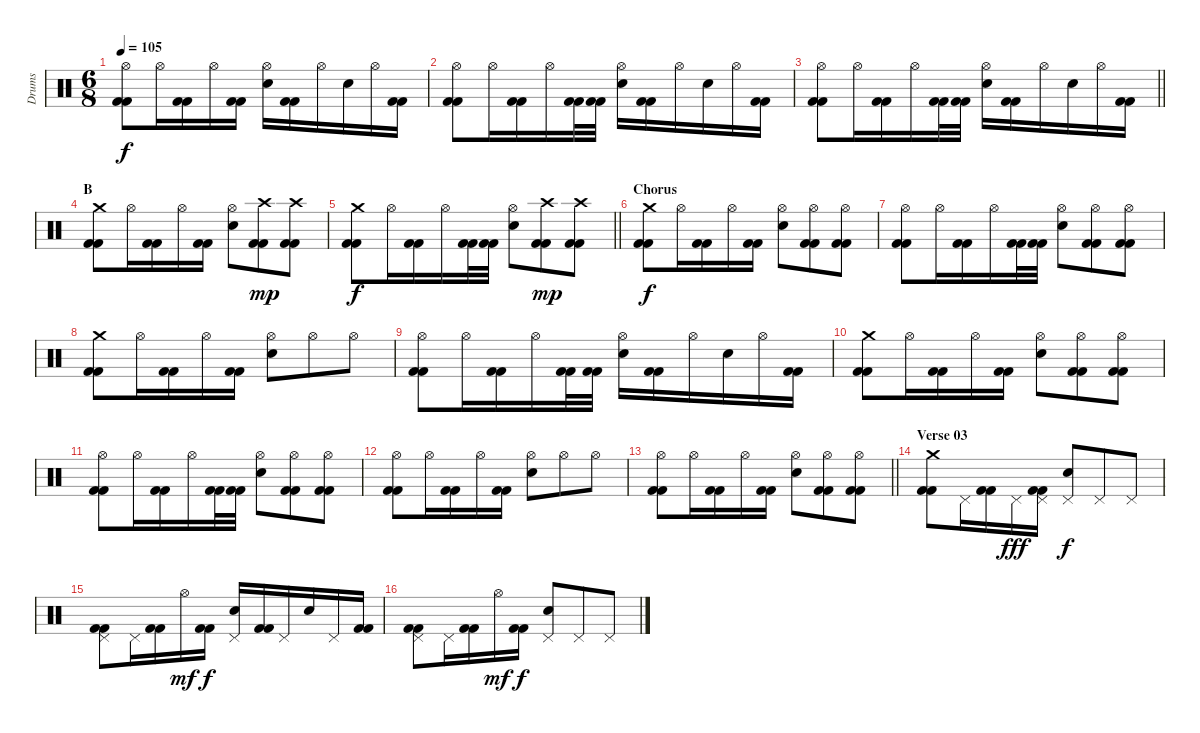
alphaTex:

\track ("Drums" "Drums") {instrument percussion}
\staff {score}
\articulation defaults
\ts (6 8)
\tempo 105
\clef neutral
\ks c
("Hi-Hat (open)" "Kick (hit) 2" "Kick (hit) 2").8{dy f} "Hi-Hat (open)".16 ("Kick (hit) 2" "Kick (hit) 2").16 "Hi-Hat (open)".16 ("Kick (hit) 2" "Kick (hit) 2").16 ("Hi-Hat (open)" "Electric Snare (hit)").16 ("Kick (hit) 2" "Kick (hit) 2").16 "Hi-Hat (open)".16 "Electric Snare (hit)".16 "Hi-Hat (open)".16 ("Kick (hit) 2" "Kick (hit) 2").16 |
("Hi-Hat (open)" "Kick (hit) 2" "Kick (hit) 2").8 "Hi-Hat (open)".16 ("Kick (hit) 2" "Kick (hit) 2").16 "Hi-Hat (open)".16 ("Kick (hit) 2" "Kick (hit) 2").32 ("Kick (hit) 2" "Kick (hit) 2").32 ("Hi-Hat (open)" "Electric Snare (hit)").16 ("Kick (hit) 2" "Kick (hit) 2").16 "Hi-Hat (open)".16 "Electric Snare (hit)".16 "Hi-Hat (open)".16 ("Kick (hit) 2" "Kick (hit) 2").16 |
\barLineRight lightlight
("Hi-Hat (open)" "Kick (hit) 2" "Kick (hit) 2").8 "Hi-Hat (open)".16 ("Kick (hit) 2" "Kick (hit) 2").16 "Hi-Hat (open)".16 ("Kick (hit) 2" "Kick (hit) 2").32 ("Kick (hit) 2" "Kick (hit) 2").32 ("Hi-Hat (open)" "Electric Snare (hit)").16 ("Kick (hit) 2" "Kick (hit) 2").16 "Hi-Hat (open)".16 "Electric Snare (hit)".16 "Hi-Hat (open)".16 ("Kick (hit) 2" "Kick (hit) 2").16 |
\section ("" "B")
("Crash medium (hit)" "Kick (hit) 2" "Kick (hit) 2").8 "Hi-Hat (open)".16 ("Kick (hit) 2" "Kick (hit) 2").16 "Hi-Hat (open)".16 ("Kick (hit) 2" "Kick (hit) 2").16 ("Hi-Hat (open)" "Electric Snare (hit)").8 ("Crash high (hit)" "Kick (hit) 2" "Kick (hit) 2").8{dy mp} ("Crash high (hit)" "Kick (hit) 2" "Kick (hit) 2").8 |
\barLineRight lightlight
("Crash medium (hit)" "Kick (hit) 2" "Kick (hit) 2").8{dy f} "Hi-Hat (open)".16 ("Kick (hit) 2" "Kick (hit) 2").16 "Hi-Hat (open)".16 ("Kick (hit) 2" "Kick (hit) 2").32 ("Kick (hit) 2" "Kick (hit) 2").32 ("Hi-Hat (open)" "Electric Snare (hit)").8 ("Crash high (hit)" "Kick (hit) 2" "Kick (hit) 2").8{dy mp} ("Crash high (hit)" "Kick (hit) 2" "Kick (hit) 2").8 |
\section ("" "Chorus")
("Crash medium (hit)" "Kick (hit) 2" "Kick (hit) 2").8{dy f} "Hi-Hat (open)".16 ("Kick (hit) 2" "Kick (hit) 2").16 "Hi-Hat (open)".16 ("Kick (hit) 2" "Kick (hit) 2").16 ("Hi-Hat (open)" "Electric Snare (hit)").8 ("Hi-Hat (open)" "Kick (hit) 2" "Kick (hit) 2").8 ("Hi-Hat (open)" "Kick (hit) 2" "Kick (hit) 2").8 |
("Hi-Hat (open)" "Kick (hit) 2" "Kick (hit) 2").8 "Hi-Hat (open)".16 ("Kick (hit) 2" "Kick (hit) 2").16 "Hi-Hat (open)".16 ("Kick (hit) 2" "Kick (hit) 2").32 ("Kick (hit) 2" "Kick (hit) 2").32 ("Hi-Hat (open)" "Electric Snare (hit)").8 ("Hi-Hat (open)" "Kick (hit) 2" "Kick (hit) 2").8 ("Hi-Hat (open)" "Kick (hit) 2" "Kick (hit) 2").8 |
("Crash medium (hit)" "Kick (hit) 2" "Kick (hit) 2").8 "Hi-Hat (open)".16 ("Kick (hit) 2" "Kick (hit) 2").16 "Hi-Hat (open)".16 ("Kick (hit) 2" "Kick (hit) 2").16 ("Hi-Hat (open)" "Electric Snare (hit)").8 "Hi-Hat (open)".8 "Hi-Hat (open)".8 |
("Hi-Hat (open)" "Kick (hit) 2" "Kick (hit) 2").8 "Hi-Hat (open)".16 ("Kick (hit) 2" "Kick (hit) 2").16 "Hi-Hat (open)".16 ("Kick (hit) 2" "Kick (hit) 2").32 ("Kick (hit) 2" "Kick (hit) 2").32 ("Hi-Hat (open)" "Electric Snare (hit)").16 ("Kick (hit) 2" "Kick (hit) 2").16 "Hi-Hat (open)".16 "Electric Snare (hit)".16 "Hi-Hat (open)".16 ("Kick (hit) 2" "Kick (hit) 2").16 |
("Crash medium (hit)" "Kick (hit) 2" "Kick (hit) 2").8 "Hi-Hat (open)".16 ("Kick (hit) 2" "Kick (hit) 2").16 "Hi-Hat (open)".16 ("Kick (hit) 2" "Kick (hit) 2").16 ("Hi-Hat (open)" "Electric Snare (hit)").8 ("Hi-Hat (open)" "Kick (hit) 2" "Kick (hit) 2").8 ("Hi-Hat (open)" "Kick (hit) 2" "Kick (hit) 2").8 |
("Hi-Hat (open)" "Kick (hit) 2" "Kick (hit) 2").8 "Hi-Hat (open)".16 ("Kick (hit) 2" "Kick (hit) 2").16 "Hi-Hat (open)".16 ("Kick (hit) 2" "Kick (hit) 2").32 ("Kick (hit) 2" "Kick (hit) 2").32 ("Hi-Hat (open)" "Electric Snare (hit)").8 ("Hi-Hat (open)" "Kick (hit) 2" "Kick (hit) 2").8 ("Hi-Hat (open)" "Kick (hit) 2" "Kick (hit) 2").8 |
("Hi-Hat (open)" "Kick (hit) 2" "Kick (hit) 2").8 "Hi-Hat (open)".16 ("Kick (hit) 2" "Kick (hit) 2").16 "Hi-Hat (open)".16 ("Kick (hit) 2" "Kick (hit) 2").16 ("Hi-Hat (open)" "Electric Snare (hit)").8 "Hi-Hat (open)".8 "Hi-Hat (open)".8 |
\barLineRight lightlight
("Hi-Hat (open)" "Kick (hit) 2" "Kick (hit) 2").8 "Hi-Hat (open)".16 ("Kick (hit) 2" "Kick (hit) 2").16 "Hi-Hat (open)".16 ("Kick (hit) 2" "Kick (hit) 2").16 ("Hi-Hat (open)" "Electric Snare (hit)").8 ("Hi-Hat (open)" "Kick (hit) 2" "Kick (hit) 2").8 ("Hi-Hat (open)" "Kick (hit) 2" "Kick (hit) 2").8 |
\section ("" "Verse 03")
("Crash medium (hit)" "Kick (hit) 2" "Kick (hit) 2").8 "Pedal Hi-Hat (hit)".16 ("Kick (hit) 2" "Kick (hit) 2").16 "Pedal Hi-Hat (hit)".16{dy fff} ("Pedal Hi-Hat (hit)" "Kick (hit) 2" "Kick (hit) 2").16 ("Pedal Hi-Hat (hit)" "Electric Snare (hit)").8{dy f} "Pedal Hi-Hat (hit)".8 "Pedal Hi-Hat (hit)".8 |
("Pedal Hi-Hat (hit)" "Kick (hit) 2" "Kick (hit) 2").8 "Pedal Hi-Hat (hit)".16 ("Kick (hit) 2" "Kick (hit) 2").16 "Hi-Hat (open)".16{dy mf} ("Kick (hit) 2" "Kick (hit) 2").16{dy f} ("Pedal Hi-Hat (hit)" "Electric Snare (hit)").16 ("Kick (hit) 2" "Kick (hit) 2").16 "Pedal Hi-Hat (hit)".16 "Electric Snare (hit)".16 "Pedal Hi-Hat (hit)".16 ("Kick (hit) 2" "Kick (hit) 2").16 |
("Pedal Hi-Hat (hit)" "Kick (hit) 2" "Kick (hit) 2").8 "Pedal Hi-Hat (hit)".16 ("Kick (hit) 2" "Kick (hit) 2").16 "Hi-Hat (open)".16{dy mf} ("Kick (hit) 2" "Kick (hit) 2").16{dy f} ("Pedal Hi-Hat (hit)" "Electric Snare (hit)").8 "Pedal Hi-Hat (hit)".8 "Pedal Hi-Hat (hit)".8
